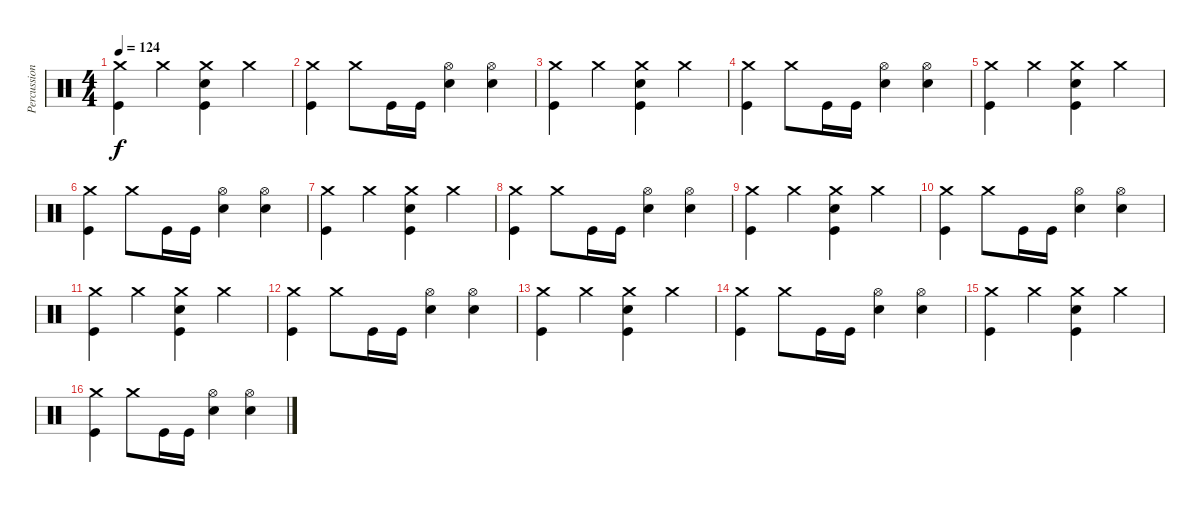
\track ("Percussion" "Percussion") {instrument percussion}
\staff {score}
\articulation defaults
\ts (4 4)
\tempo 124
\clef neutral
\ks c
("Crash medium (hit)" "Kick (hit)").4{dy f} "Crash medium (hit)".4 ("Kick (hit)" "Crash medium (hit)" "Electric Snare (hit)").4 "Crash medium (hit)".4 |
("Crash medium (hit)" "Kick (hit)").4 "Crash medium (hit)".8 "Kick (hit)".16 "Kick (hit)".16 ("Hi-Hat (open)" "Electric Snare (hit)").4 ("Hi-Hat (open)" "Electric Snare (hit)").4 |
("Crash medium (hit)" "Kick (hit)").4 "Crash medium (hit)".4 ("Kick (hit)" "Crash medium (hit)" "Electric Snare (hit)").4 "Crash medium (hit)".4 |
("Crash medium (hit)" "Kick (hit)").4 "Crash medium (hit)".8 "Kick (hit)".16 "Kick (hit)".16 ("Hi-Hat (open)" "Electric Snare (hit)").4 ("Hi-Hat (open)" "Electric Snare (hit)").4 |
("Crash medium (hit)" "Kick (hit)").4 "Crash medium (hit)".4 ("Kick (hit)" "Crash medium (hit)" "Electric Snare (hit)").4 "Crash medium (hit)".4 |
("Crash medium (hit)" "Kick (hit)").4 "Crash medium (hit)".8 "Kick (hit)".16 "Kick (hit)".16 ("Hi-Hat (open)" "Electric Snare (hit)").4 ("Hi-Hat (open)" "Electric Snare (hit)").4 |
("Crash medium (hit)" "Kick (hit)").4 "Crash medium (hit)".4 ("Kick (hit)" "Crash medium (hit)" "Electric Snare (hit)").4 "Crash medium (hit)".4 |
("Crash medium (hit)" "Kick (hit)").4 "Crash medium (hit)".8 "Kick (hit)".16 "Kick (hit)".16 ("Hi-Hat (open)" "Electric Snare (hit)").4 ("Hi-Hat (open)" "Electric Snare (hit)").4 |
("Crash medium (hit)" "Kick (hit)").4 "Crash medium (hit)".4 ("Kick (hit)" "Crash medium (hit)" "Electric Snare (hit)").4 "Crash medium (hit)".4 |
("Crash medium (hit)" "Kick (hit)").4 "Crash medium (hit)".8 "Kick (hit)".16 "Kick (hit)".16 ("Hi-Hat (open)" "Electric Snare (hit)").4 ("Hi-Hat (open)" "Electric Snare (hit)").4 |
("Crash medium (hit)" "Kick (hit)").4 "Crash medium (hit)".4 ("Kick (hit)" "Crash medium (hit)" "Electric Snare (hit)").4 "Crash medium (hit)".4 |
("Crash medium (hit)" "Kick (hit)").4 "Crash medium (hit)".8 "Kick (hit)".16 "Kick (hit)".16 ("Hi-Hat (open)" "Electric Snare (hit)").4 ("Hi-Hat (open)" "Electric Snare (hit)").4 |
("Crash medium (hit)" "Kick (hit)").4 "Crash medium (hit)".4 ("Kick (hit)" "Crash medium (hit)" "Electric Snare (hit)").4 "Crash medium (hit)".4 |
("Crash medium (hit)" "Kick (hit)").4 "Crash medium (hit)".8 "Kick (hit)".16 "Kick (hit)".16 ("Hi-Hat (open)" "Electric Snare (hit)").4 ("Hi-Hat (open)" "Electric Snare (hit)").4 |
("Crash medium (hit)" "Kick (hit)").4 "Crash medium (hit)".4 ("Kick (hit)" "Crash medium (hit)" "Electric Snare (hit)").4 "Crash medium (hit)".4 |
("Crash medium (hit)" "Kick (hit)").4 "Crash medium (hit)".8 "Kick (hit)".16 "Kick (hit)".16 ("Hi-Hat (open)" "Electric Snare (hit)").4 ("Hi-Hat (open)" "Electric Snare (hit)").4
